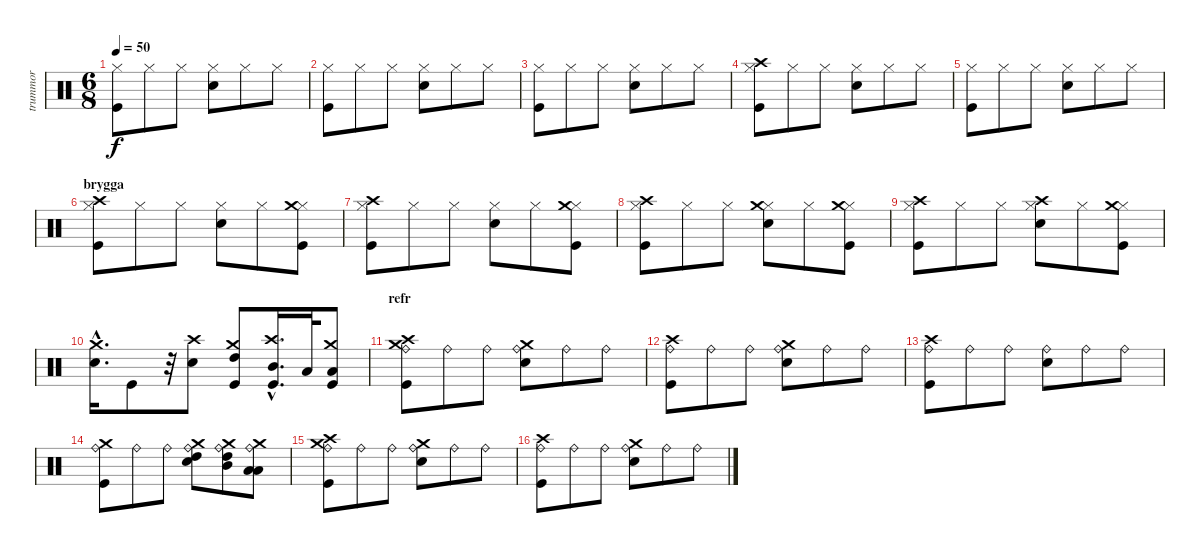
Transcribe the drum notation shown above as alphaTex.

\track ("trummor" "trummor") {instrument percussion}
\staff {score}
\articulation defaults
\ts (6 8)
\tempo 50
\clef neutral
\ks c
("Kick (hit)" "Hi-Hat (closed)").8{dy f} "Hi-Hat (closed)".8 "Hi-Hat (closed)".8 ("Electric Snare (hit)" "Hi-Hat (closed)").8 "Hi-Hat (closed)".8 "Hi-Hat (closed)".8 |
("Kick (hit)" "Hi-Hat (closed)").8 "Hi-Hat (closed)".8 "Hi-Hat (closed)".8 ("Electric Snare (hit)" "Hi-Hat (closed)").8 "Hi-Hat (closed)".8 "Hi-Hat (closed)".8 |
("Kick (hit)" "Hi-Hat (closed)").8 "Hi-Hat (closed)".8 "Hi-Hat (closed)".8 ("Electric Snare (hit)" "Hi-Hat (closed)").8 "Hi-Hat (closed)".8 "Hi-Hat (closed)".8 |
("Kick (hit)" "Hi-Hat (closed)" "Crash high (hit)").8 "Hi-Hat (closed)".8 "Hi-Hat (closed)".8 ("Electric Snare (hit)" "Hi-Hat (closed)").8 "Hi-Hat (closed)".8 "Hi-Hat (closed)".8 |
("Kick (hit)" "Hi-Hat (closed)").8 "Hi-Hat (closed)".8 "Hi-Hat (closed)".8 ("Electric Snare (hit)" "Hi-Hat (closed)").8 "Hi-Hat (closed)".8 "Hi-Hat (closed)".8 |
\section ("" "brygga")
("Kick (hit)" "Hi-Hat (closed)" "Crash high (hit)").8 "Hi-Hat (closed)".8 "Hi-Hat (closed)".8 ("Electric Snare (hit)" "Hi-Hat (closed)").8 "Hi-Hat (closed)".8 ("Kick (hit)" "Hi-Hat (closed)" "Crash medium (hit)").8 |
("Kick (hit)" "Hi-Hat (closed)" "Crash high (hit)").8 "Hi-Hat (closed)".8 "Hi-Hat (closed)".8 ("Electric Snare (hit)" "Hi-Hat (closed)").8 "Hi-Hat (closed)".8 ("Kick (hit)" "Hi-Hat (closed)" "Crash medium (hit)").8 |
("Kick (hit)" "Hi-Hat (closed)" "Crash high (hit)").8 "Hi-Hat (closed)".8 "Hi-Hat (closed)".8 ("Electric Snare (hit)" "Hi-Hat (closed)" "Crash medium (hit)").8 "Hi-Hat (closed)".8 ("Kick (hit)" "Hi-Hat (closed)" "Crash medium (hit)").8 |
("Kick (hit)" "Hi-Hat (closed)" "Crash high (hit)").8 "Hi-Hat (closed)".8 "Hi-Hat (closed)".8 ("Electric Snare (hit)" "Hi-Hat (closed)" "Crash high (hit)").8 "Hi-Hat (closed)".8 ("Kick (hit)" "Hi-Hat (closed)" "Crash medium (hit)").8 |
("Electric Snare (hit)"{hac} "Crash medium (hit)"{hac}).16{d} "Kick (hit)".8 r.32 ("Electric Snare (hit)" "Crash high (hit)").8 ("Kick (hit)" "High Tom (hit)" "Crash medium (hit)").8 ("Kick (hit)"{hac} "Mid Tom (hit)"{hac} "Crash high (hit)"{hac}).16{d} "Low Tom (hit)".32 ("Kick (hit)" "Low Floor Tom (hit)" "Crash medium (hit)").8 |
\section ("" "refr")
("Kick (hit)" "Ride (bell)" "Crash high (hit)" "Crash medium (hit)").8 "Ride (bell)".8 "Ride (bell)".8 ("Electric Snare (hit)" "Ride (bell)" "Crash medium (hit)").8 "Ride (bell)".8 "Ride (bell)".8 |
("Kick (hit)" "Ride (bell)" "Crash high (hit)").8 "Ride (bell)".8 "Ride (bell)".8 ("Electric Snare (hit)" "Ride (bell)" "Crash medium (hit)").8 "Ride (bell)".8 "Ride (bell)".8 |
("Kick (hit)" "Ride (bell)" "Crash high (hit)").8 "Ride (bell)".8 "Ride (bell)".8 ("Electric Snare (hit)" "Ride (bell)").8 "Ride (bell)".8 "Ride (bell)".8 |
("Kick (hit)" "Ride (bell)" "Crash medium (hit)").8 "Ride (bell)".8 "Ride (bell)".8 ("Electric Snare (hit)" "Ride (bell)" "High Tom (hit)" "Crash medium (hit)").8 ("Ride (bell)" "Mid Tom (hit)" "High Tom (hit)" "Crash medium (hit)").8 ("Ride (bell)" "Low Floor Tom (hit)" "Low Tom (hit)" "Crash medium (hit)").8 |
("Kick (hit)" "Ride (bell)" "Crash high (hit)" "Crash medium (hit)").8 "Ride (bell)".8 "Ride (bell)".8 ("Electric Snare (hit)" "Ride (bell)" "Crash medium (hit)").8 "Ride (bell)".8 "Ride (bell)".8 |
("Kick (hit)" "Ride (bell)" "Crash high (hit)").8 "Ride (bell)".8 "Ride (bell)".8 ("Electric Snare (hit)" "Ride (bell)" "Crash medium (hit)").8 "Ride (bell)".8 "Ride (bell)".8
